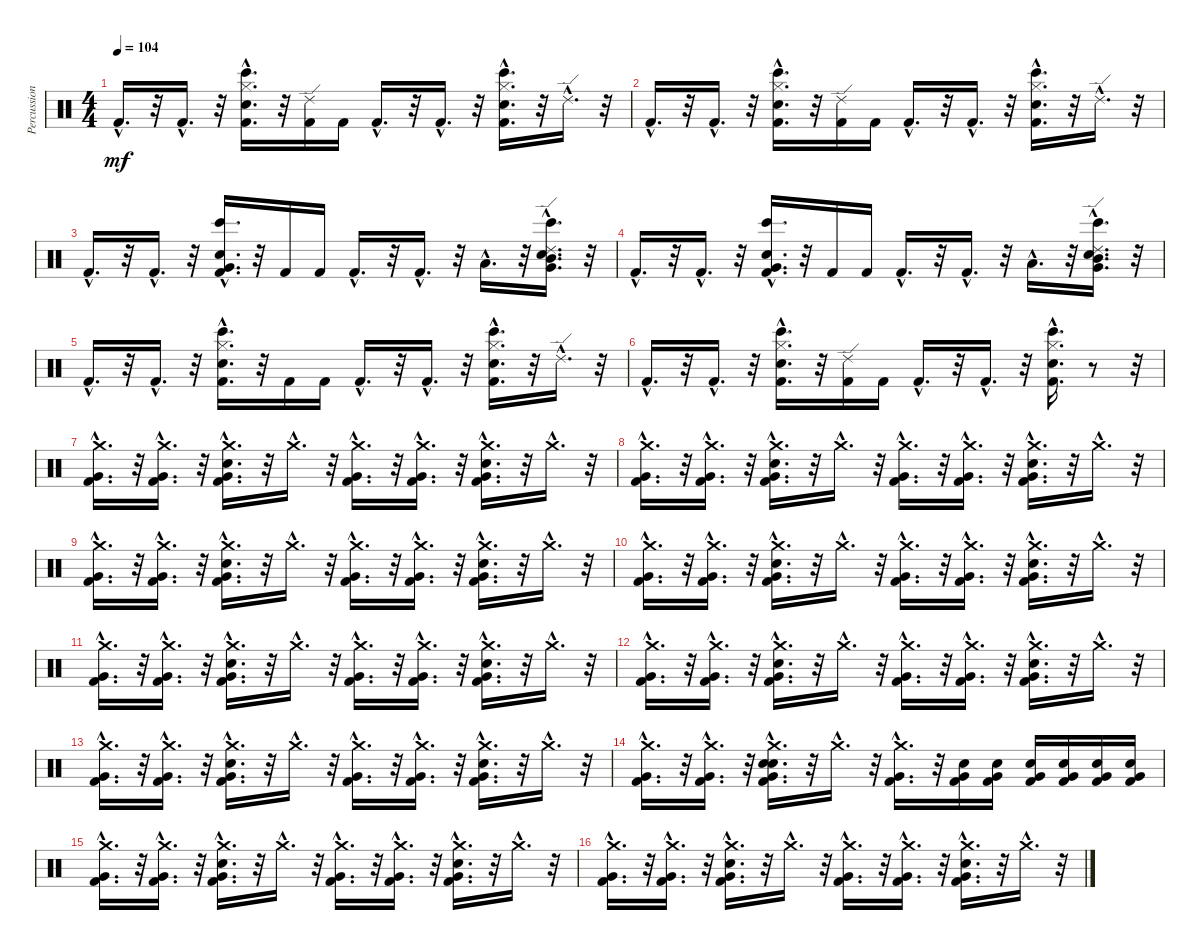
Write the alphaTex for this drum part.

\track ("Percussion" "Percussion") {instrument percussion}
\staff {score}
\articulation defaults
\ts (4 4)
\tempo 104
\clef neutral
\ks c "Kick (hit) 2"{hac}.16{d dy mf}
r.32 "Kick (hit) 2"{hac}.16{d} r.32 ("Bongo High (hit)"{hac} "Hand Clap (hit)"{hac} "Kick (hit) 2"{hac} "Hi-Hat (closed)"{hac}).16{d} r.32 ("Kick (hit) 2" "Ride (edge) 2").16 "Kick (hit) 2".16 "Kick (hit) 2"{hac}.16{d} r.32 "Kick (hit) 2"{hac}.16{d} r.32 ("Bongo High (hit)"{hac} "Hand Clap (hit)"{hac} "Kick (hit) 2"{hac} "Hi-Hat (closed)"{hac}).16{d} r.32 "Ride (edge) 2"{hac}.16{d} r.32 |
"Kick (hit) 2"{hac}.16{d} r.32 "Kick (hit) 2"{hac}.16{d} r.32 ("Bongo High (hit)"{hac} "Hand Clap (hit)"{hac} "Kick (hit) 2"{hac} "Hi-Hat (closed)"{hac}).16{d} r.32 ("Kick (hit) 2" "Ride (edge) 2").16 "Kick (hit) 2".16 "Kick (hit) 2"{hac}.16{d} r.32 "Kick (hit) 2"{hac}.16{d} r.32 ("Bongo High (hit)"{hac} "Hi-Hat (closed)"{hac} "Kick (hit) 2"{hac} "Hand Clap (hit)"{hac}).16{d} r.32 "Ride (edge) 2"{hac}.16{d} r.32 |
"Kick (hit) 2"{hac}.16{d} r.32 "Kick (hit) 2"{hac}.16{d} r.32 ("Bongo High (hit)"{hac} "Kick (hit) 2"{hac} "Very Low Tom (hit)"{hac} "Hand Clap (hit)"{hac}).16{d} r.32 "Kick (hit) 2".16 "Kick (hit) 2".16 "Kick (hit) 2"{hac}.16{d} r.32 "Kick (hit) 2"{hac}.16{d} r.32 "Low Floor Tom (hit)"{hac}.16{d} r.32 ("Hand Clap (hit)"{hac} "Bongo High (hit)"{hac} "Ride (edge) 2"{hac} "Mid Tom (hit)"{hac} "Very Low Tom (hit)"{hac}).16{d} r.32 |
"Kick (hit) 2"{hac}.16{d} r.32 "Kick (hit) 2"{hac}.16{d} r.32 ("Kick (hit) 2"{hac} "Bongo High (hit)"{hac} "Hand Clap (hit)"{hac} "Very Low Tom (hit)"{hac}).16{d} r.32 "Kick (hit) 2".16 "Kick (hit) 2".16 "Kick (hit) 2"{hac}.16{d} r.32 "Kick (hit) 2"{hac}.16{d} r.32 "Low Floor Tom (hit)"{hac}.16{d} r.32 ("Hand Clap (hit)"{hac} "Bongo High (hit)"{hac} "Ride (edge) 2"{hac} "Very Low Tom (hit)"{hac} "Mid Tom (hit)"{hac}).16{d} r.32 |
"Kick (hit) 2"{hac}.16{d} r.32 "Kick (hit) 2"{hac}.16{d} r.32 ("Kick (hit) 2"{hac} "Bongo High (hit)"{hac} "Hand Clap (hit)"{hac} "Hi-Hat (closed)"{hac}).16{d} r.32 "Kick (hit) 2".16 "Kick (hit) 2".16 "Kick (hit) 2"{hac}.16{d} r.32 "Kick (hit) 2"{hac}.16{d} r.32 ("Bongo High (hit)"{hac} "Hi-Hat (closed)"{hac} "Kick (hit) 2"{hac} "Hand Clap (hit)"{hac}).16{d} r.32 "Ride (edge) 2"{hac}.16{d} r.32 |
"Kick (hit) 2"{hac}.16{d} r.32 "Kick (hit) 2"{hac}.16{d} r.32 ("Bongo High (hit)"{hac} "Hi-Hat (closed)"{hac} "Kick (hit) 2"{hac} "Hand Clap (hit)"{hac}).16{d} r.32 ("Ride (edge) 2" "Kick (hit) 2").16 "Kick (hit) 2".16 "Kick (hit) 2"{hac}.16{d} r.32 "Kick (hit) 2"{hac}.16{d} r.32 ("Bongo High (hit)"{hac} "Hi-Hat (closed)"{hac} "Hand Clap (hit)"{hac} "Kick (hit) 2"{hac}).16{d} r.8 r.32 |
("Crash medium (hit)"{hac} "Very Low Tom (hit)"{hac} "Kick (hit) 2"{hac}).16{d} r.32 ("Crash medium (hit)"{hac} "Very Low Tom (hit)"{hac} "Kick (hit) 2"{hac}).16{d} r.32 ("Very Low Tom (hit)"{hac} "Crash medium (hit)"{hac} "Kick (hit) 2"{hac} "Electric Snare (hit)"{hac}).16{d} r.32 "Crash medium (hit)"{hac}.16{d} r.32 ("Crash medium (hit)"{hac} "Very Low Tom (hit)"{hac} "Kick (hit) 2"{hac}).16{d} r.32 ("Crash medium (hit)"{hac} "Very Low Tom (hit)"{hac} "Kick (hit) 2"{hac}).16{d} r.32 ("Very Low Tom (hit)"{hac} "Crash medium (hit)"{hac} "Kick (hit) 2"{hac} "Electric Snare (hit)"{hac}).16{d} r.32 "Crash medium (hit)"{hac}.16{d} r.32 |
("Crash medium (hit)"{hac} "Very Low Tom (hit)"{hac} "Kick (hit) 2"{hac}).16{d} r.32 ("Crash medium (hit)"{hac} "Very Low Tom (hit)"{hac} "Kick (hit) 2"{hac}).16{d} r.32 ("Very Low Tom (hit)"{hac} "Crash medium (hit)"{hac} "Kick (hit) 2"{hac} "Electric Snare (hit)"{hac}).16{d} r.32 "Crash medium (hit)"{hac}.16{d} r.32 ("Crash medium (hit)"{hac} "Very Low Tom (hit)"{hac} "Kick (hit) 2"{hac}).16{d} r.32 ("Crash medium (hit)"{hac} "Very Low Tom (hit)"{hac} "Kick (hit) 2"{hac}).16{d} r.32 ("Very Low Tom (hit)"{hac} "Crash medium (hit)"{hac} "Kick (hit) 2"{hac} "Electric Snare (hit)"{hac}).16{d} r.32 "Crash medium (hit)"{hac}.16{d} r.32 |
("Crash medium (hit)"{hac} "Very Low Tom (hit)"{hac} "Kick (hit) 2"{hac}).16{d} r.32 ("Crash medium (hit)"{hac} "Very Low Tom (hit)"{hac} "Kick (hit) 2"{hac}).16{d} r.32 ("Very Low Tom (hit)"{hac} "Crash medium (hit)"{hac} "Kick (hit) 2"{hac} "Electric Snare (hit)"{hac}).16{d} r.32 "Crash medium (hit)"{hac}.16{d} r.32 ("Crash medium (hit)"{hac} "Very Low Tom (hit)"{hac} "Kick (hit) 2"{hac}).16{d} r.32 ("Crash medium (hit)"{hac} "Very Low Tom (hit)"{hac} "Kick (hit) 2"{hac}).16{d} r.32 ("Very Low Tom (hit)"{hac} "Crash medium (hit)"{hac} "Kick (hit) 2"{hac} "Electric Snare (hit)"{hac}).16{d} r.32 "Crash medium (hit)"{hac}.16{d} r.32 |
("Crash medium (hit)"{hac} "Very Low Tom (hit)"{hac} "Kick (hit) 2"{hac}).16{d} r.32 ("Crash medium (hit)"{hac} "Very Low Tom (hit)"{hac} "Kick (hit) 2"{hac}).16{d} r.32 ("Very Low Tom (hit)"{hac} "Crash medium (hit)"{hac} "Kick (hit) 2"{hac} "Electric Snare (hit)"{hac}).16{d} r.32 "Crash medium (hit)"{hac}.16{d} r.32 ("Crash medium (hit)"{hac} "Very Low Tom (hit)"{hac} "Kick (hit) 2"{hac}).16{d} r.32 ("Crash medium (hit)"{hac} "Very Low Tom (hit)"{hac} "Kick (hit) 2"{hac}).16{d} r.32 ("Very Low Tom (hit)"{hac} "Crash medium (hit)"{hac} "Kick (hit) 2"{hac} "Electric Snare (hit)"{hac}).16{d} r.32 "Crash medium (hit)"{hac}.16{d} r.32 |
("Crash medium (hit)"{hac} "Very Low Tom (hit)"{hac} "Kick (hit) 2"{hac}).16{d} r.32 ("Crash medium (hit)"{hac} "Very Low Tom (hit)"{hac} "Kick (hit) 2"{hac}).16{d} r.32 ("Very Low Tom (hit)"{hac} "Crash medium (hit)"{hac} "Kick (hit) 2"{hac} "Electric Snare (hit)"{hac}).16{d} r.32 "Crash medium (hit)"{hac}.16{d} r.32 ("Crash medium (hit)"{hac} "Very Low Tom (hit)"{hac} "Kick (hit) 2"{hac}).16{d} r.32 ("Crash medium (hit)"{hac} "Very Low Tom (hit)"{hac} "Kick (hit) 2"{hac}).16{d} r.32 ("Very Low Tom (hit)"{hac} "Crash medium (hit)"{hac} "Kick (hit) 2"{hac} "Electric Snare (hit)"{hac}).16{d} r.32 "Crash medium (hit)"{hac}.16{d} r.32 |
("Crash medium (hit)"{hac} "Very Low Tom (hit)"{hac} "Kick (hit) 2"{hac}).16{d} r.32 ("Crash medium (hit)"{hac} "Very Low Tom (hit)"{hac} "Kick (hit) 2"{hac}).16{d} r.32 ("Very Low Tom (hit)"{hac} "Crash medium (hit)"{hac} "Kick (hit) 2"{hac} "Electric Snare (hit)"{hac}).16{d} r.32 "Crash medium (hit)"{hac}.16{d} r.32 ("Crash medium (hit)"{hac} "Very Low Tom (hit)"{hac} "Kick (hit) 2"{hac}).16{d} r.32 ("Crash medium (hit)"{hac} "Very Low Tom (hit)"{hac} "Kick (hit) 2"{hac}).16{d} r.32 ("Very Low Tom (hit)"{hac} "Crash medium (hit)"{hac} "Kick (hit) 2"{hac} "Electric Snare (hit)"{hac}).16{d} r.32 "Crash medium (hit)"{hac}.16{d} r.32 |
("Crash medium (hit)"{hac} "Very Low Tom (hit)"{hac} "Kick (hit) 2"{hac}).16{d} r.32 ("Crash medium (hit)"{hac} "Very Low Tom (hit)"{hac} "Kick (hit) 2"{hac}).16{d} r.32 ("Very Low Tom (hit)"{hac} "Crash medium (hit)"{hac} "Kick (hit) 2"{hac} "Electric Snare (hit)"{hac}).16{d} r.32 "Crash medium (hit)"{hac}.16{d} r.32 ("Crash medium (hit)"{hac} "Very Low Tom (hit)"{hac} "Kick (hit) 2"{hac}).16{d} r.32 ("Crash medium (hit)"{hac} "Very Low Tom (hit)"{hac} "Kick (hit) 2"{hac}).16{d} r.32 ("Very Low Tom (hit)"{hac} "Crash medium (hit)"{hac} "Kick (hit) 2"{hac} "Electric Snare (hit)"{hac}).16{d} r.32 "Crash medium (hit)"{hac}.16{d} r.32 |
("Very Low Tom (hit)"{hac} "Kick (hit) 2"{hac} "Crash medium (hit)"{hac}).16{d} r.32 ("Crash medium (hit)"{hac} "Very Low Tom (hit)"{hac} "Kick (hit) 2"{hac}).16{d} r.32 ("Very Low Tom (hit)"{hac} "Kick (hit) 2"{hac} "Crash medium (hit)"{hac} "Electric Snare (hit)"{hac} "Snare (hit) 2"{hac}).16{d} r.32 "Crash medium (hit)"{hac}.16{d} r.32 ("Very Low Tom (hit)"{hac} "Crash medium (hit)"{hac} "Kick (hit) 2"{hac}).16{d} r.32 ("Electric Snare (hit)" "Kick (hit) 2" "Very Low Tom (hit)").16 ("Electric Snare (hit)" "Kick (hit) 2" "Very Low Tom (hit)").16 ("Kick (hit) 2" "Very Low Tom (hit)" "Electric Snare (hit)").16 ("Kick (hit) 2" "Very Low Tom (hit)" "Electric Snare (hit)").16 ("Kick (hit) 2" "Very Low Tom (hit)" "Electric Snare (hit)").16 ("Kick (hit) 2" "Very Low Tom (hit)" "Electric Snare (hit)").16 |
("Crash medium (hit)"{hac} "Very Low Tom (hit)"{hac} "Kick (hit) 2"{hac}).16{d} r.32 ("Crash medium (hit)"{hac} "Very Low Tom (hit)"{hac} "Kick (hit) 2"{hac}).16{d} r.32 ("Very Low Tom (hit)"{hac} "Crash medium (hit)"{hac} "Kick (hit) 2"{hac} "Electric Snare (hit)"{hac}).16{d} r.32 "Crash medium (hit)"{hac}.16{d} r.32 ("Crash medium (hit)"{hac} "Very Low Tom (hit)"{hac} "Kick (hit) 2"{hac}).16{d} r.32 ("Crash medium (hit)"{hac} "Very Low Tom (hit)"{hac} "Kick (hit) 2"{hac}).16{d} r.32 ("Very Low Tom (hit)"{hac} "Crash medium (hit)"{hac} "Kick (hit) 2"{hac} "Electric Snare (hit)"{hac}).16{d} r.32 "Crash medium (hit)"{hac}.16{d} r.32 |
("Crash medium (hit)"{hac} "Very Low Tom (hit)"{hac} "Kick (hit) 2"{hac}).16{d} r.32 ("Crash medium (hit)"{hac} "Very Low Tom (hit)"{hac} "Kick (hit) 2"{hac}).16{d} r.32 ("Very Low Tom (hit)"{hac} "Crash medium (hit)"{hac} "Kick (hit) 2"{hac} "Electric Snare (hit)"{hac}).16{d} r.32 "Crash medium (hit)"{hac}.16{d} r.32 ("Crash medium (hit)"{hac} "Very Low Tom (hit)"{hac} "Kick (hit) 2"{hac}).16{d} r.32 ("Crash medium (hit)"{hac} "Very Low Tom (hit)"{hac} "Kick (hit) 2"{hac}).16{d} r.32 ("Very Low Tom (hit)"{hac} "Crash medium (hit)"{hac} "Kick (hit) 2"{hac} "Electric Snare (hit)"{hac}).16{d} r.32 "Crash medium (hit)"{hac}.16{d} r.32
